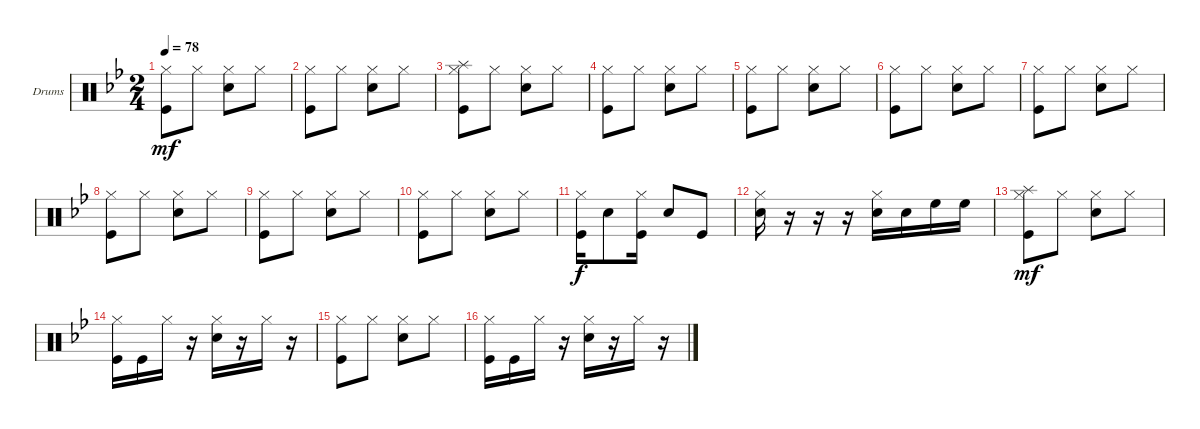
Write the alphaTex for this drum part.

\defaultSystemsLayout 4
\bracketExtendMode groupsimilarinstruments
\firstSystemTrackNameOrientation horizontal
\otherSystemsTrackNameOrientation horizontal
\track ("Катя" "Drums") {instrument percussion}
\staff {score}
\articulation defaults
\ts (2 4)
\tempo 78
\clef neutral
\ks gminor
("Kick (hit)" "Hi-Hat (closed)").8{dy mf} "Hi-Hat (closed)".8 ("Hi-Hat (closed)" "Snare (hit) 2").8 "Hi-Hat (closed)".8 |
("Hi-Hat (closed)" "Kick (hit)").8 "Hi-Hat (closed)".8 ("Hi-Hat (closed)" "Snare (hit) 2").8 "Hi-Hat (closed)".8 |
("Kick (hit)" "Hi-Hat (closed)" "Splash (hit)").8 "Hi-Hat (closed)".8 ("Hi-Hat (closed)" "Snare (hit) 2").8 "Hi-Hat (closed)".8 |
("Hi-Hat (closed)" "Kick (hit)").8 "Hi-Hat (closed)".8 ("Hi-Hat (closed)" "Snare (hit) 2").8 "Hi-Hat (closed)".8 |
("Kick (hit)" "Hi-Hat (closed)").8 "Hi-Hat (closed)".8 ("Hi-Hat (closed)" "Snare (hit) 2").8 "Hi-Hat (closed)".8 |
("Hi-Hat (closed)" "Kick (hit)").8 "Hi-Hat (closed)".8 ("Hi-Hat (closed)" "Snare (hit) 2").8 "Hi-Hat (closed)".8 |
("Kick (hit)" "Hi-Hat (closed)").8 "Hi-Hat (closed)".8 ("Hi-Hat (closed)" "Snare (hit) 2").8 "Hi-Hat (closed)".8 |
("Hi-Hat (closed)" "Kick (hit)").8 "Hi-Hat (closed)".8 ("Hi-Hat (closed)" "Snare (hit) 2").8 "Hi-Hat (closed)".8 |
("Kick (hit)" "Hi-Hat (closed)").8 "Hi-Hat (closed)".8 ("Hi-Hat (closed)" "Snare (hit) 2").8 "Hi-Hat (closed)".8 |
("Hi-Hat (closed)" "Kick (hit)").8 "Hi-Hat (closed)".8 ("Hi-Hat (closed)" "Snare (hit) 2").8 "Hi-Hat (closed)".8 |
("Kick (hit)" "Hi-Hat (closed)").16{dy f} "Snare (hit) 2".8 ("Kick (hit)" "Hi-Hat (closed)").16 "Snare (hit) 2".8 "Kick (hit)".8 |
("Hi-Hat (closed)" "Snare (hit) 2").16 r.16 r.16 r.16 ("Hi-Hat (closed)" "Snare (hit) 2").16 "Snare (hit) 2".16 "High Floor Tom (hit)".16 "High Floor Tom (hit)".16 |
("Kick (hit)" "Hi-Hat (closed)" "Splash (hit)").8{dy mf} "Hi-Hat (closed)".8 ("Hi-Hat (closed)" "Snare (hit) 2").8 "Hi-Hat (closed)".8 |
("Hi-Hat (closed)" "Kick (hit)").16 "Kick (hit)".16 "Hi-Hat (closed)".16 r.16 ("Hi-Hat (closed)" "Snare (hit) 2").16 r.16 "Hi-Hat (closed)".16 r.16 |
("Kick (hit)" "Hi-Hat (closed)").8 "Hi-Hat (closed)".8 ("Hi-Hat (closed)" "Snare (hit) 2").8 "Hi-Hat (closed)".8 |
("Hi-Hat (closed)" "Kick (hit)").16 "Kick (hit)".16 "Hi-Hat (closed)".16 r.16 ("Hi-Hat (closed)" "Snare (hit) 2").16 r.16 "Hi-Hat (closed)".16 r.16
